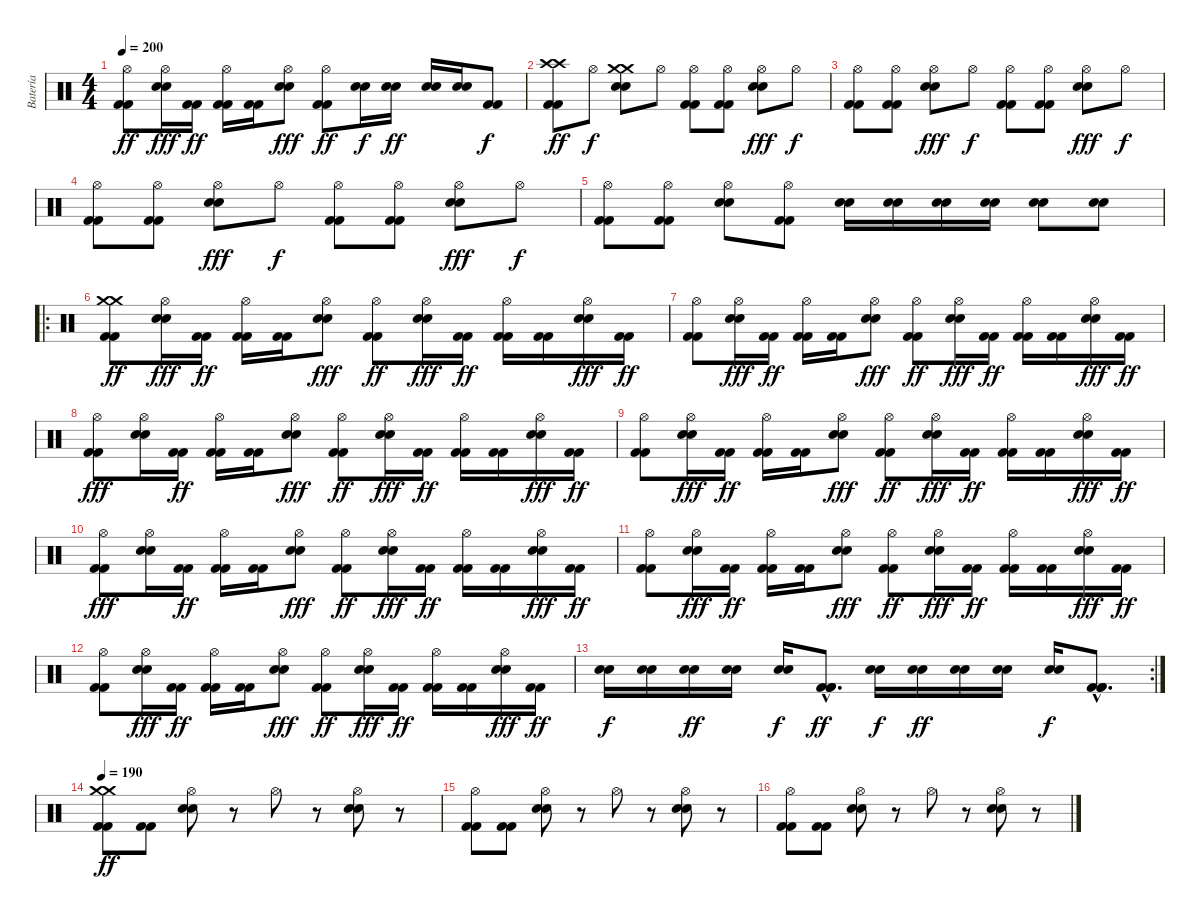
\track ("Batería" "Batería") {instrument percussion}
\staff {score}
\articulation defaults
\ts (4 4)
\tempo 200
\clef neutral
\ks c
("Hi-Hat (open)" "Kick (hit) 2" "Kick (hit) 2").8{dy ff} ("Hi-Hat (open)" "Electric Snare (hit)" "Electric Snare (hit)").16{dy fff} ("Kick (hit) 2" "Kick (hit) 2").16{dy ff} ("Hi-Hat (open)" "Kick (hit) 2" "Kick (hit) 2").16 ("Kick (hit) 2" "Kick (hit) 2").16 ("Hi-Hat (open)" "Electric Snare (hit)" "Electric Snare (hit)").8{dy fff} ("Hi-Hat (open)" "Kick (hit) 2" "Kick (hit) 2").8{dy ff} ("Electric Snare (hit)" "Electric Snare (hit)").16{dy f} ("Electric Snare (hit)" "Electric Snare (hit)").16{dy ff} ("Electric Snare (hit)" "Electric Snare (hit)").16 ("Electric Snare (hit)" "Electric Snare (hit)").16 ("Kick (hit) 2" "Kick (hit) 2").8{dy f} |
("Crash high (hit)" "Crash high (hit)" "Kick (hit) 2" "Kick (hit) 2").8{dy ff} "Hi-Hat (open)".8{dy f} ("Crash medium (hit)" "Crash medium (hit)" "Electric Snare (hit)" "Electric Snare (hit)").8 "Hi-Hat (open)".8 ("Hi-Hat (open)" "Kick (hit) 2" "Kick (hit) 2").8 ("Hi-Hat (open)" "Kick (hit) 2" "Kick (hit) 2").8 ("Hi-Hat (open)" "Electric Snare (hit)" "Electric Snare (hit)").8{dy fff} "Hi-Hat (open)".8{dy f} |
("Hi-Hat (open)" "Kick (hit) 2" "Kick (hit) 2").8 ("Hi-Hat (open)" "Kick (hit) 2" "Kick (hit) 2").8 ("Hi-Hat (open)" "Electric Snare (hit)" "Electric Snare (hit)").8{dy fff} "Hi-Hat (open)".8{dy f} ("Hi-Hat (open)" "Kick (hit) 2" "Kick (hit) 2").8 ("Hi-Hat (open)" "Kick (hit) 2" "Kick (hit) 2").8 ("Hi-Hat (open)" "Electric Snare (hit)" "Electric Snare (hit)").8{dy fff} "Hi-Hat (open)".8{dy f} |
("Hi-Hat (open)" "Kick (hit) 2" "Kick (hit) 2").8 ("Hi-Hat (open)" "Kick (hit) 2" "Kick (hit) 2").8 ("Hi-Hat (open)" "Electric Snare (hit)" "Electric Snare (hit)").8{dy fff} "Hi-Hat (open)".8{dy f} ("Hi-Hat (open)" "Kick (hit) 2" "Kick (hit) 2").8 ("Hi-Hat (open)" "Kick (hit) 2" "Kick (hit) 2").8 ("Hi-Hat (open)" "Electric Snare (hit)" "Electric Snare (hit)").8{dy fff} "Hi-Hat (open)".8{dy f} |
("Hi-Hat (open)" "Kick (hit) 2" "Kick (hit) 2").8 ("Hi-Hat (open)" "Kick (hit) 2" "Kick (hit) 2").8 ("Hi-Hat (open)" "Electric Snare (hit)" "Electric Snare (hit)").8 ("Hi-Hat (open)" "Kick (hit) 2" "Kick (hit) 2").8 ("Electric Snare (hit)" "Electric Snare (hit)").16 ("Electric Snare (hit)" "Electric Snare (hit)").16 ("Electric Snare (hit)" "Electric Snare (hit)").16 ("Electric Snare (hit)" "Electric Snare (hit)").16 ("Electric Snare (hit)" "Electric Snare (hit)").8 ("Electric Snare (hit)" "Electric Snare (hit)").8 |
\ro
("Crash medium (hit)" "Crash medium (hit)" "Kick (hit) 2" "Kick (hit) 2").8{dy ff} ("Hi-Hat (open)" "Electric Snare (hit)" "Electric Snare (hit)").16{dy fff} ("Kick (hit) 2" "Kick (hit) 2").16{dy ff} ("Hi-Hat (open)" "Kick (hit) 2" "Kick (hit) 2").16 ("Kick (hit) 2" "Kick (hit) 2").16 ("Hi-Hat (open)" "Electric Snare (hit)" "Electric Snare (hit)").8{dy fff} ("Hi-Hat (open)" "Kick (hit) 2" "Kick (hit) 2").8{dy ff} ("Hi-Hat (open)" "Electric Snare (hit)" "Electric Snare (hit)").16{dy fff} ("Kick (hit) 2" "Kick (hit) 2").16{dy ff} ("Hi-Hat (open)" "Kick (hit) 2" "Kick (hit) 2").16 ("Kick (hit) 2" "Kick (hit) 2").16 ("Hi-Hat (open)" "Electric Snare (hit)" "Electric Snare (hit)").16{dy fff} ("Kick (hit) 2" "Kick (hit) 2").16{dy ff} |
("Hi-Hat (open)" "Kick (hit) 2" "Kick (hit) 2").8 ("Hi-Hat (open)" "Electric Snare (hit)" "Electric Snare (hit)").16{dy fff} ("Kick (hit) 2" "Kick (hit) 2").16{dy ff} ("Hi-Hat (open)" "Kick (hit) 2" "Kick (hit) 2").16 ("Kick (hit) 2" "Kick (hit) 2").16 ("Hi-Hat (open)" "Electric Snare (hit)" "Electric Snare (hit)").8{dy fff} ("Hi-Hat (open)" "Kick (hit) 2" "Kick (hit) 2").8{dy ff} ("Hi-Hat (open)" "Electric Snare (hit)" "Electric Snare (hit)").16{dy fff} ("Kick (hit) 2" "Kick (hit) 2").16{dy ff} ("Hi-Hat (open)" "Kick (hit) 2" "Kick (hit) 2").16 ("Kick (hit) 2" "Kick (hit) 2").16 ("Hi-Hat (open)" "Electric Snare (hit)" "Electric Snare (hit)").16{dy fff} ("Kick (hit) 2" "Kick (hit) 2").16{dy ff} |
("Hi-Hat (open)" "Kick (hit) 2" "Kick (hit) 2").8{dy fff} ("Hi-Hat (open)" "Electric Snare (hit)" "Electric Snare (hit)").16 ("Kick (hit) 2" "Kick (hit) 2").16{dy ff} ("Hi-Hat (open)" "Kick (hit) 2" "Kick (hit) 2").16 ("Kick (hit) 2" "Kick (hit) 2").16 ("Hi-Hat (open)" "Electric Snare (hit)" "Electric Snare (hit)").8{dy fff} ("Hi-Hat (open)" "Kick (hit) 2" "Kick (hit) 2").8{dy ff} ("Hi-Hat (open)" "Electric Snare (hit)" "Electric Snare (hit)").16{dy fff} ("Kick (hit) 2" "Kick (hit) 2").16{dy ff} ("Hi-Hat (open)" "Kick (hit) 2" "Kick (hit) 2").16 ("Kick (hit) 2" "Kick (hit) 2").16 ("Hi-Hat (open)" "Electric Snare (hit)" "Electric Snare (hit)").16{dy fff} ("Kick (hit) 2" "Kick (hit) 2").16{dy ff} |
("Hi-Hat (open)" "Kick (hit) 2" "Kick (hit) 2").8 ("Hi-Hat (open)" "Electric Snare (hit)" "Electric Snare (hit)").16{dy fff} ("Kick (hit) 2" "Kick (hit) 2").16{dy ff} ("Hi-Hat (open)" "Kick (hit) 2" "Kick (hit) 2").16 ("Kick (hit) 2" "Kick (hit) 2").16 ("Hi-Hat (open)" "Electric Snare (hit)" "Electric Snare (hit)").8{dy fff} ("Hi-Hat (open)" "Kick (hit) 2" "Kick (hit) 2").8{dy ff} ("Hi-Hat (open)" "Electric Snare (hit)" "Electric Snare (hit)").16{dy fff} ("Kick (hit) 2" "Kick (hit) 2").16{dy ff} ("Hi-Hat (open)" "Kick (hit) 2" "Kick (hit) 2").16 ("Kick (hit) 2" "Kick (hit) 2").16 ("Hi-Hat (open)" "Electric Snare (hit)" "Electric Snare (hit)").16{dy fff} ("Kick (hit) 2" "Kick (hit) 2").16{dy ff} |
("Hi-Hat (open)" "Kick (hit) 2" "Kick (hit) 2").8{dy fff} ("Hi-Hat (open)" "Electric Snare (hit)" "Electric Snare (hit)").16 ("Kick (hit) 2" "Kick (hit) 2").16{dy ff} ("Hi-Hat (open)" "Kick (hit) 2" "Kick (hit) 2").16 ("Kick (hit) 2" "Kick (hit) 2").16 ("Hi-Hat (open)" "Electric Snare (hit)" "Electric Snare (hit)").8{dy fff} ("Hi-Hat (open)" "Kick (hit) 2" "Kick (hit) 2").8{dy ff} ("Hi-Hat (open)" "Electric Snare (hit)" "Electric Snare (hit)").16{dy fff} ("Kick (hit) 2" "Kick (hit) 2").16{dy ff} ("Hi-Hat (open)" "Kick (hit) 2" "Kick (hit) 2").16 ("Kick (hit) 2" "Kick (hit) 2").16 ("Hi-Hat (open)" "Electric Snare (hit)" "Electric Snare (hit)").16{dy fff} ("Kick (hit) 2" "Kick (hit) 2").16{dy ff} |
("Hi-Hat (open)" "Kick (hit) 2" "Kick (hit) 2").8 ("Hi-Hat (open)" "Electric Snare (hit)" "Electric Snare (hit)").16{dy fff} ("Kick (hit) 2" "Kick (hit) 2").16{dy ff} ("Hi-Hat (open)" "Kick (hit) 2" "Kick (hit) 2").16 ("Kick (hit) 2" "Kick (hit) 2").16 ("Hi-Hat (open)" "Electric Snare (hit)" "Electric Snare (hit)").8{dy fff} ("Hi-Hat (open)" "Kick (hit) 2" "Kick (hit) 2").8{dy ff} ("Hi-Hat (open)" "Electric Snare (hit)" "Electric Snare (hit)").16{dy fff} ("Kick (hit) 2" "Kick (hit) 2").16{dy ff} ("Hi-Hat (open)" "Kick (hit) 2" "Kick (hit) 2").16 ("Kick (hit) 2" "Kick (hit) 2").16 ("Hi-Hat (open)" "Electric Snare (hit)" "Electric Snare (hit)").16{dy fff} ("Kick (hit) 2" "Kick (hit) 2").16{dy ff} |
("Hi-Hat (open)" "Kick (hit) 2" "Kick (hit) 2").8 ("Hi-Hat (open)" "Electric Snare (hit)" "Electric Snare (hit)").16{dy fff} ("Kick (hit) 2" "Kick (hit) 2").16{dy ff} ("Hi-Hat (open)" "Kick (hit) 2" "Kick (hit) 2").16 ("Kick (hit) 2" "Kick (hit) 2").16 ("Hi-Hat (open)" "Electric Snare (hit)" "Electric Snare (hit)").8{dy fff} ("Hi-Hat (open)" "Kick (hit) 2" "Kick (hit) 2").8{dy ff} ("Hi-Hat (open)" "Electric Snare (hit)" "Electric Snare (hit)").16{dy fff} ("Kick (hit) 2" "Kick (hit) 2").16{dy ff} ("Hi-Hat (open)" "Kick (hit) 2" "Kick (hit) 2").16 ("Kick (hit) 2" "Kick (hit) 2").16 ("Hi-Hat (open)" "Electric Snare (hit)" "Electric Snare (hit)").16{dy fff} ("Kick (hit) 2" "Kick (hit) 2").16{dy ff} |
\rc 2
("Electric Snare (hit)" "Electric Snare (hit)").16{dy f} ("Electric Snare (hit)" "Electric Snare (hit)").16 ("Electric Snare (hit)" "Electric Snare (hit)").16{dy ff} ("Electric Snare (hit)" "Electric Snare (hit)").16 ("Electric Snare (hit)" "Electric Snare (hit)").16{dy f} ("Kick (hit) 2"{hac} "Kick (hit) 2"{hac} "Kick (hit) 2"{hac}).8{d dy ff} ("Electric Snare (hit)" "Electric Snare (hit)").16{dy f} ("Electric Snare (hit)" "Electric Snare (hit)").16{dy ff} ("Electric Snare (hit)" "Electric Snare (hit)").16 ("Electric Snare (hit)" "Electric Snare (hit)").16 ("Electric Snare (hit)" "Electric Snare (hit)").16{dy f} ("Kick (hit) 2"{hac} "Kick (hit) 2"{hac} "Kick (hit) 2"{hac}).8{d} |
\tempo 190
("Crash medium (hit)" "Crash medium (hit)" "Kick (hit) 2" "Kick (hit) 2").8{dy ff} ("Kick (hit) 2" "Kick (hit) 2").8 ("Hi-Hat (open)" "Electric Snare (hit)" "Electric Snare (hit)").8 r.8 "Hi-Hat (open)".8 r.8 ("Hi-Hat (open)" "Electric Snare (hit)" "Electric Snare (hit)").8 r.8 |
("Hi-Hat (open)" "Kick (hit) 2" "Kick (hit) 2").8 ("Kick (hit) 2" "Kick (hit) 2").8 ("Hi-Hat (open)" "Electric Snare (hit)" "Electric Snare (hit)").8 r.8 "Hi-Hat (open)".8 r.8 ("Hi-Hat (open)" "Electric Snare (hit)" "Electric Snare (hit)").8 r.8 |
("Hi-Hat (open)" "Kick (hit) 2" "Kick (hit) 2").8 ("Kick (hit) 2" "Kick (hit) 2").8 ("Hi-Hat (open)" "Electric Snare (hit)" "Electric Snare (hit)").8 r.8 "Hi-Hat (open)".8 r.8 ("Hi-Hat (open)" "Electric Snare (hit)" "Electric Snare (hit)").8 r.8
